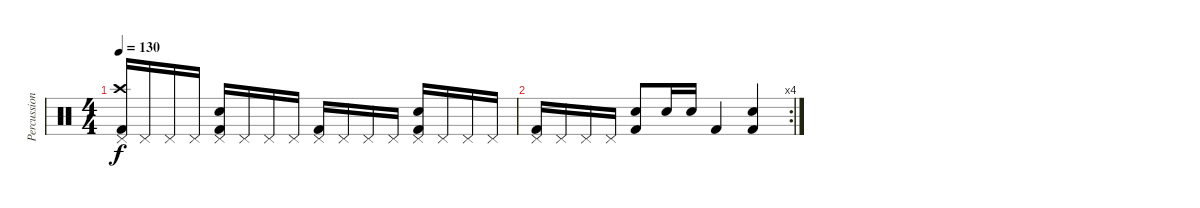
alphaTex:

\track ("Percussion" "Percussion") {instrument percussion}
\staff {score}
\articulation defaults
\ts (4 4)
\tempo 130
\clef neutral
\ks c
("Pedal Hi-Hat (hit)" "Crash high (hit)" "Kick (hit) 2").16{dy f} "Pedal Hi-Hat (hit)".16 "Pedal Hi-Hat (hit)".16 "Pedal Hi-Hat (hit)".16 ("Pedal Hi-Hat (hit)" "Snare (hit) 2" "Kick (hit) 2").16 "Pedal Hi-Hat (hit)".16 "Pedal Hi-Hat (hit)".16 "Pedal Hi-Hat (hit)".16 ("Pedal Hi-Hat (hit)" "Kick (hit) 2").16 "Pedal Hi-Hat (hit)".16 "Pedal Hi-Hat (hit)".16 "Pedal Hi-Hat (hit)".16 ("Pedal Hi-Hat (hit)" "Snare (hit) 2" "Kick (hit) 2").16 "Pedal Hi-Hat (hit)".16 "Pedal Hi-Hat (hit)".16 "Pedal Hi-Hat (hit)".16 |
\rc 4
("Pedal Hi-Hat (hit)" "Kick (hit) 2").16 "Pedal Hi-Hat (hit)".16 "Pedal Hi-Hat (hit)".16 "Pedal Hi-Hat (hit)".16 ("Snare (hit) 2" "Kick (hit) 2").8 "Snare (hit) 2".16 "Snare (hit) 2".16 "Kick (hit) 2".4 ("Snare (hit) 2" "Kick (hit) 2").4
